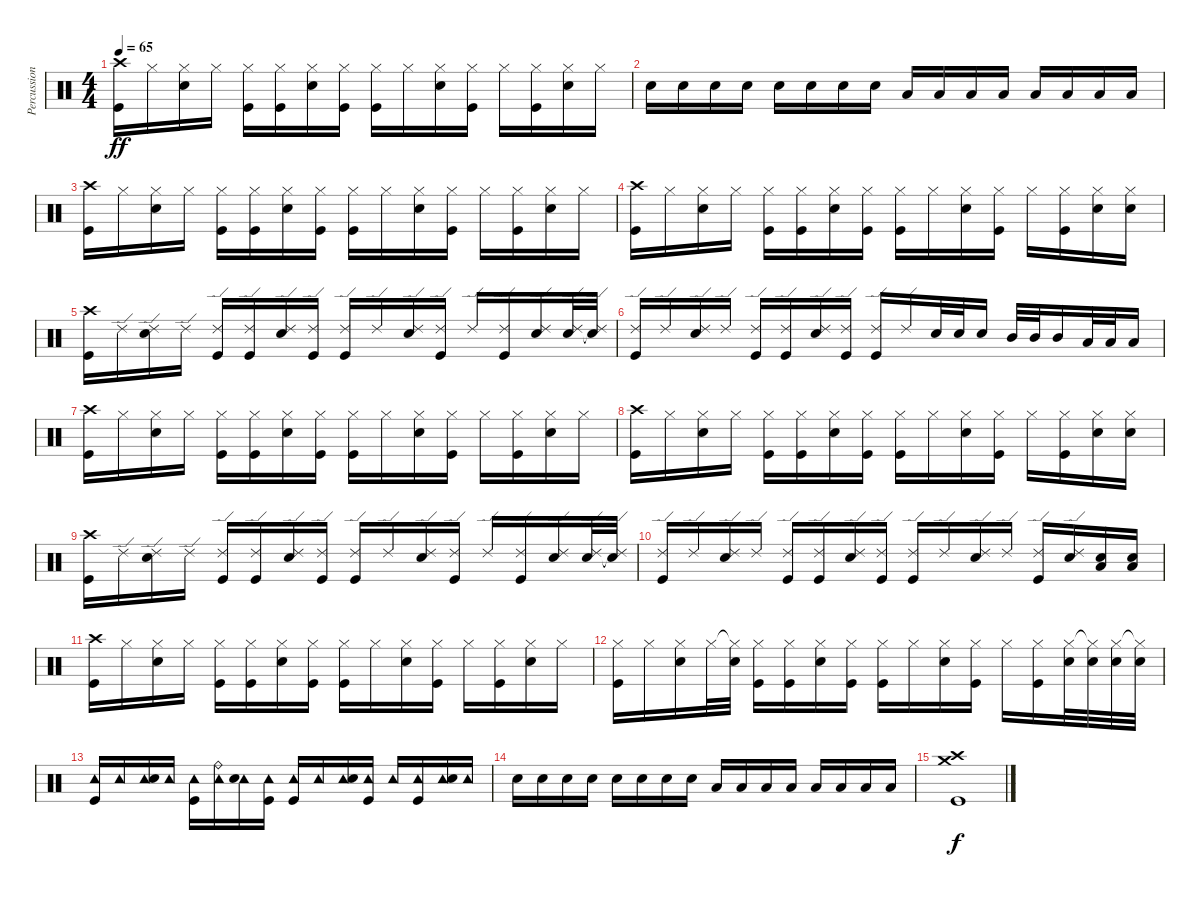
\track ("Percussioni" "Percussion") {instrument percussion}
\staff {score}
\articulation defaults
\ts (4 4)
\tempo 65
\clef neutral
\ks c
("Crash high (hit)" "Kick (hit)").16{dy ff} "Hi-Hat (closed)".16 ("Hi-Hat (closed)" "Snare (hit) 2").16 "Hi-Hat (closed)".16 ("Hi-Hat (closed)" "Kick (hit)").16 ("Hi-Hat (closed)" "Kick (hit)").16 ("Hi-Hat (closed)" "Snare (hit) 2").16 ("Hi-Hat (closed)" "Kick (hit)").16 ("Hi-Hat (closed)" "Kick (hit)").16 "Hi-Hat (closed)".16 ("Hi-Hat (closed)" "Snare (hit) 2").16 ("Hi-Hat (closed)" "Kick (hit)").16 "Hi-Hat (closed)".16 ("Hi-Hat (closed)" "Kick (hit)").16 ("Hi-Hat (closed)" "Snare (hit) 2").16 "Hi-Hat (closed)".16 |
"Snare (hit) 2".16 "Snare (hit) 2".16 "Snare (hit) 2".16 "Snare (hit) 2".16 "Snare (hit) 2".16 "Snare (hit) 2".16 "Snare (hit) 2".16 "Snare (hit) 2".16 "Low Floor Tom (hit)".16 "Low Floor Tom (hit)".16 "Low Floor Tom (hit)".16 "Low Floor Tom (hit)".16 "Low Floor Tom (hit)".16 "Low Floor Tom (hit)".16 "Low Floor Tom (hit)".16 "Low Floor Tom (hit)".16 |
("Crash high (hit)" "Kick (hit)").16 "Hi-Hat (closed)".16 ("Hi-Hat (closed)" "Snare (hit) 2").16 "Hi-Hat (closed)".16 ("Hi-Hat (closed)" "Kick (hit)").16 ("Hi-Hat (closed)" "Kick (hit)").16 ("Hi-Hat (closed)" "Snare (hit) 2").16 ("Hi-Hat (closed)" "Kick (hit)").16 ("Hi-Hat (closed)" "Kick (hit)").16 "Hi-Hat (closed)".16 ("Hi-Hat (closed)" "Snare (hit) 2").16 ("Hi-Hat (closed)" "Kick (hit)").16 "Hi-Hat (closed)".16 ("Hi-Hat (closed)" "Kick (hit)").16 ("Hi-Hat (closed)" "Snare (hit) 2").16 "Hi-Hat (closed)".16 |
("Crash high (hit)" "Kick (hit)").16 "Hi-Hat (closed)".16 ("Hi-Hat (closed)" "Snare (hit) 2").16 "Hi-Hat (closed)".16 ("Hi-Hat (closed)" "Kick (hit)").16 ("Hi-Hat (closed)" "Kick (hit)").16 ("Hi-Hat (closed)" "Snare (hit) 2").16 ("Hi-Hat (closed)" "Kick (hit)").16 ("Hi-Hat (closed)" "Kick (hit)").16 "Hi-Hat (closed)".16 ("Hi-Hat (closed)" "Snare (hit) 2").16 ("Hi-Hat (closed)" "Kick (hit)").16 "Hi-Hat (closed)".16 ("Hi-Hat (closed)" "Kick (hit)").16 ("Hi-Hat (closed)" "Snare (hit) 2").16 ("Hi-Hat (closed)" "Snare (hit) 2").16 |
("Crash high (hit)" "Kick (hit)").16 "Ride (edge) 2".16 ("Ride (edge) 2" "Snare (hit) 2").16 "Ride (edge) 2".16 ("Ride (edge) 2" "Kick (hit)").16 ("Ride (edge) 2" "Kick (hit)").16 ("Ride (edge) 2" "Snare (hit) 2").16 ("Ride (edge) 2" "Kick (hit)").16 ("Ride (edge) 2" "Kick (hit)").16 "Ride (edge) 2".16 ("Ride (edge) 2" "Snare (hit) 2").16 ("Ride (edge) 2" "Kick (hit)").16 "Ride (edge) 2".16 ("Ride (edge) 2" "Kick (hit)").16 ("Ride (edge) 2" "Snare (hit) 2").16 ("Ride (edge) 2" "Snare (hit) 2").32 ("Ride (edge) 2"{t} "Snare (hit) 2").32 |
("Ride (edge) 2" "Kick (hit)").16 "Ride (edge) 2".16 ("Ride (edge) 2" "Snare (hit) 2").16 "Ride (edge) 2".16 ("Ride (edge) 2" "Kick (hit)").16 ("Ride (edge) 2" "Kick (hit)").16 ("Ride (edge) 2" "Snare (hit) 2").16 ("Ride (edge) 2" "Kick (hit)").16 ("Ride (edge) 2" "Kick (hit)").16 "Ride (edge) 2".16 "Snare (hit) 2".32 "Snare (hit) 2".32 "Snare (hit) 2".16 "Mid Tom (hit)".32 "Mid Tom (hit)".32 "Mid Tom (hit)".16 "Low Tom (hit)".32 "Low Tom (hit)".32 "Low Tom (hit)".16 |
("Crash high (hit)" "Kick (hit)").16 "Hi-Hat (closed)".16 ("Hi-Hat (closed)" "Snare (hit) 2").16 "Hi-Hat (closed)".16 ("Hi-Hat (closed)" "Kick (hit)").16 ("Hi-Hat (closed)" "Kick (hit)").16 ("Hi-Hat (closed)" "Snare (hit) 2").16 ("Hi-Hat (closed)" "Kick (hit)").16 ("Hi-Hat (closed)" "Kick (hit)").16 "Hi-Hat (closed)".16 ("Hi-Hat (closed)" "Snare (hit) 2").16 ("Hi-Hat (closed)" "Kick (hit)").16 "Hi-Hat (closed)".16 ("Hi-Hat (closed)" "Kick (hit)").16 ("Hi-Hat (closed)" "Snare (hit) 2").16 "Hi-Hat (closed)".16 |
("Crash high (hit)" "Kick (hit)").16 "Hi-Hat (closed)".16 ("Hi-Hat (closed)" "Snare (hit) 2").16 "Hi-Hat (closed)".16 ("Hi-Hat (closed)" "Kick (hit)").16 ("Hi-Hat (closed)" "Kick (hit)").16 ("Hi-Hat (closed)" "Snare (hit) 2").16 ("Hi-Hat (closed)" "Kick (hit)").16 ("Hi-Hat (closed)" "Kick (hit)").16 "Hi-Hat (closed)".16 ("Hi-Hat (closed)" "Snare (hit) 2").16 ("Hi-Hat (closed)" "Kick (hit)").16 "Hi-Hat (closed)".16 ("Hi-Hat (closed)" "Kick (hit)").16 ("Hi-Hat (closed)" "Snare (hit) 2").16 ("Hi-Hat (closed)" "Snare (hit) 2").16 |
("Crash high (hit)" "Kick (hit)").16 "Ride (edge) 2".16 ("Ride (edge) 2" "Snare (hit) 2").16 "Ride (edge) 2".16 ("Ride (edge) 2" "Kick (hit)").16 ("Ride (edge) 2" "Kick (hit)").16 ("Ride (edge) 2" "Snare (hit) 2").16 ("Ride (edge) 2" "Kick (hit)").16 ("Ride (edge) 2" "Kick (hit)").16 "Ride (edge) 2".16 ("Ride (edge) 2" "Snare (hit) 2").16 ("Ride (edge) 2" "Kick (hit)").16 "Ride (edge) 2".16 ("Ride (edge) 2" "Kick (hit)").16 ("Ride (edge) 2" "Snare (hit) 2").16 ("Ride (edge) 2" "Snare (hit) 2").32 ("Ride (edge) 2"{t} "Snare (hit) 2").32 |
("Ride (edge) 2" "Kick (hit)").16 "Ride (edge) 2".16 ("Ride (edge) 2" "Snare (hit) 2").16 "Ride (edge) 2".16 ("Ride (edge) 2" "Kick (hit)").16 ("Ride (edge) 2" "Kick (hit)").16 ("Ride (edge) 2" "Snare (hit) 2").16 ("Ride (edge) 2" "Kick (hit)").16 ("Ride (edge) 2" "Kick (hit)").16 "Ride (edge) 2".16 ("Ride (edge) 2" "Snare (hit) 2").16 "Ride (edge) 2".16 ("Ride (edge) 2" "Kick (hit)").16 ("Ride (edge) 2" "Snare (hit) 2").16 ("Low Floor Tom (hit)" "Snare (hit) 2").16 ("Low Floor Tom (hit)" "Snare (hit) 2").16 |
("Crash high (hit)" "Kick (hit)").16 "Hi-Hat (closed)".16 ("Hi-Hat (closed)" "Snare (hit) 2").16 "Hi-Hat (closed)".16 ("Hi-Hat (closed)" "Kick (hit)").16 ("Hi-Hat (closed)" "Kick (hit)").16 ("Hi-Hat (closed)" "Snare (hit) 2").16 ("Hi-Hat (closed)" "Kick (hit)").16 ("Hi-Hat (closed)" "Kick (hit)").16 "Hi-Hat (closed)".16 ("Hi-Hat (closed)" "Snare (hit) 2").16 ("Hi-Hat (closed)" "Kick (hit)").16 "Hi-Hat (closed)".16 ("Hi-Hat (closed)" "Kick (hit)").16 ("Hi-Hat (closed)" "Snare (hit) 2").16 "Hi-Hat (closed)".16 |
("Hi-Hat (closed)" "Kick (hit)").16 "Hi-Hat (closed)".16 ("Hi-Hat (closed)" "Snare (hit) 2").16 "Hi-Hat (closed)".32 ("Hi-Hat (closed)"{t} "Snare (hit) 2").32 ("Hi-Hat (closed)" "Kick (hit)").16 ("Hi-Hat (closed)" "Kick (hit)").16 ("Hi-Hat (closed)" "Snare (hit) 2").16 ("Hi-Hat (closed)" "Kick (hit)").16 ("Hi-Hat (closed)" "Kick (hit)").16 "Hi-Hat (closed)".16 ("Hi-Hat (closed)" "Snare (hit) 2").16 ("Hi-Hat (closed)" "Kick (hit)").16 "Hi-Hat (closed)".16 ("Hi-Hat (closed)" "Kick (hit)").16 ("Hi-Hat (closed)" "Snare (hit) 2").32 ("Hi-Hat (closed)"{t} "Snare (hit) 2").32 ("Hi-Hat (closed)" "Snare (hit) 2").32 ("Hi-Hat (closed)"{t} "Snare (hit) 2").32 |
("Tambourine (hit)" "Kick (hit)").16 "Tambourine (hit)".16 ("Tambourine (hit)" "Snare (hit) 2").16 "Tambourine (hit)".16 ("Tambourine (hit)" "Kick (hit)").16 ("Tambourine (hit)" "Ride (bell)").16 ("Tambourine (hit)" "Snare (hit) 2").16 ("Tambourine (hit)" "Kick (hit)").16 ("Tambourine (hit)" "Kick (hit)").16 "Tambourine (hit)".16 ("Tambourine (hit)" "Snare (hit) 2").16 ("Tambourine (hit)" "Kick (hit)").16 "Tambourine (hit)".16 ("Tambourine (hit)" "Kick (hit)").16 ("Tambourine (hit)" "Snare (hit) 2").16 "Tambourine (hit)".16 |
"Snare (hit) 2".16 "Snare (hit) 2".16 "Snare (hit) 2".16 "Snare (hit) 2".16 "Snare (hit) 2".16 "Snare (hit) 2".16 "Snare (hit) 2".16 "Snare (hit) 2".16 "Low Floor Tom (hit)".16 "Low Floor Tom (hit)".16 "Low Floor Tom (hit)".16 "Low Floor Tom (hit)".16 "Low Floor Tom (hit)".16 "Low Floor Tom (hit)".16 "Low Floor Tom (hit)".16 "Low Floor Tom (hit)".16 |
("Crash medium (hit)" "Crash high (hit)" "Kick (hit)").1{dy f}
